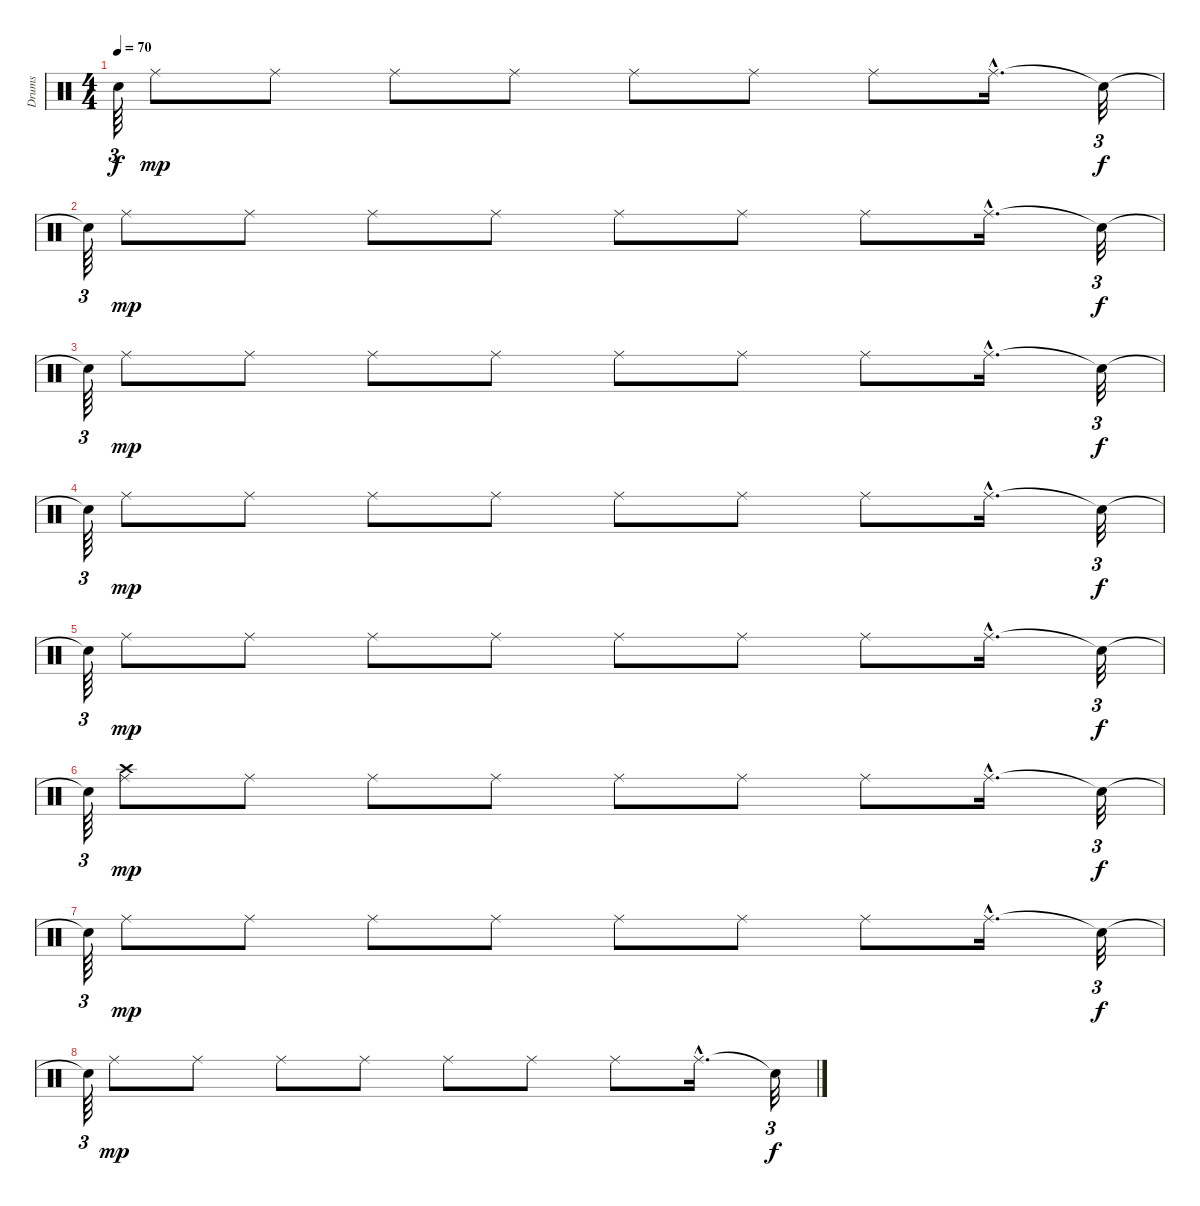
\track ("Drums               " "Drums     ") {instrument percussion}
\staff {score}
\articulation defaults
\ts (4 4)
\tempo 70
\clef neutral
\ks c "Snare (hit)"{t}.64{tu (3 2) dy f} "Ride (middle)".8{dy mp} "Ride (middle)".8 "Ride (middle)".8 "Ride (middle)".8 "Ride (middle)".8 "Ride (middle)".8 "Ride (middle)".8 "Ride (middle)"{hac}.16{d} "Snare (hit)"{t}.32{tu (3 2) dy f}
|
"Snare (hit)"{t}.64{tu (3 2)} "Ride (middle)".8{dy mp} "Ride (middle)".8 "Ride (middle)".8 "Ride (middle)".8 "Ride (middle)".8 "Ride (middle)".8 "Ride (middle)".8 "Ride (middle)"{hac}.16{d} "Snare (hit)"{t}.32{tu (3 2) dy f} |
"Snare (hit)"{t}.64{tu (3 2)} "Ride (middle)".8{dy mp} "Ride (middle)".8 "Ride (middle)".8 "Ride (middle)".8 "Ride (middle)".8 "Ride (middle)".8 "Ride (middle)".8 "Ride (middle)"{hac}.16{d} "Snare (hit)"{t}.32{tu (3 2) dy f} |
"Snare (hit)"{t}.64{tu (3 2)} "Ride (middle)".8{dy mp} "Ride (middle)".8 "Ride (middle)".8 "Ride (middle)".8 "Ride (middle)".8 "Ride (middle)".8 "Ride (middle)".8 "Ride (middle)"{hac}.16{d} "Snare (hit)"{t}.32{tu (3 2) dy f} |
"Snare (hit)"{t}.64{tu (3 2)} "Ride (middle)".8{dy mp} "Ride (middle)".8 "Ride (middle)".8 "Ride (middle)".8 "Ride (middle)".8 "Ride (middle)".8 "Ride (middle)".8 "Ride (middle)"{hac}.16{d} "Snare (hit)"{t}.32{tu (3 2) dy f} |
"Snare (hit)"{t}.64{tu (3 2)} ("Crash high (hit)" "Ride (middle)").8{dy mp} "Ride (middle)".8 "Ride (middle)".8 "Ride (middle)".8 "Ride (middle)".8 "Ride (middle)".8 "Ride (middle)".8 "Ride (middle)"{hac}.16{d} "Snare (hit)"{t}.32{tu (3 2) dy f} |
"Snare (hit)"{t}.64{tu (3 2)} "Ride (middle)".8{dy mp} "Ride (middle)".8 "Ride (middle)".8 "Ride (middle)".8 "Ride (middle)".8 "Ride (middle)".8 "Ride (middle)".8 "Ride (middle)"{hac}.16{d} "Snare (hit)"{t}.32{tu (3 2) dy f} |
"Snare (hit)"{t}.64{tu (3 2)} "Ride (middle)".8{dy mp} "Ride (middle)".8 "Ride (middle)".8 "Ride (middle)".8 "Ride (middle)".8 "Ride (middle)".8 "Ride (middle)".8 "Ride (middle)"{hac}.16{d} "Snare (hit)"{t}.32{tu (3 2) dy f}
